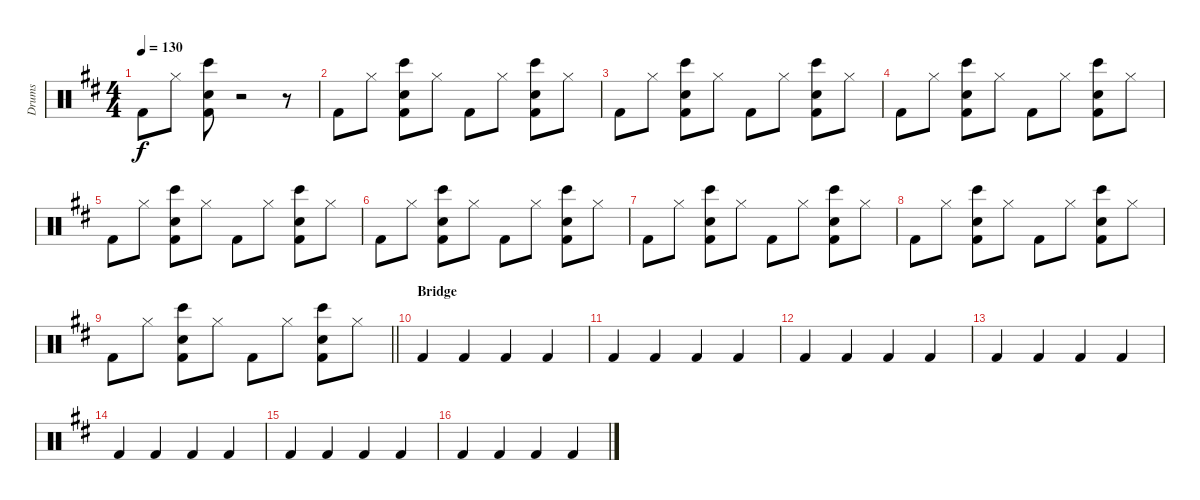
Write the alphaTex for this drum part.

\track ("Drums" "Drums") {instrument percussion}
\staff {score}
\articulation defaults
\ts (4 4)
\tempo 130
\clef neutral
\ks d "Kick (hit) 2".8{dy f} "Hi-Hat (closed)".8
("Electric Snare (hit)" "Bongo High (hit)" "Kick (hit) 2").8 r.2 r.8 |
"Kick (hit) 2".8 "Hi-Hat (closed)".8 ("Electric Snare (hit)" "Bongo High (hit)" "Kick (hit) 2").8 "Hi-Hat (closed)".8 "Kick (hit) 2".8 "Hi-Hat (closed)".8 ("Electric Snare (hit)" "Bongo High (hit)" "Kick (hit) 2").8 "Hi-Hat (closed)".8 |
"Kick (hit) 2".8 "Hi-Hat (closed)".8 ("Electric Snare (hit)" "Bongo High (hit)" "Kick (hit) 2").8 "Hi-Hat (closed)".8 "Kick (hit) 2".8 "Hi-Hat (closed)".8 ("Electric Snare (hit)" "Bongo High (hit)" "Kick (hit) 2").8 "Hi-Hat (closed)".8 |
"Kick (hit) 2".8 "Hi-Hat (closed)".8 ("Electric Snare (hit)" "Bongo High (hit)" "Kick (hit) 2").8 "Hi-Hat (closed)".8 "Kick (hit) 2".8 "Hi-Hat (closed)".8 ("Electric Snare (hit)" "Bongo High (hit)" "Kick (hit) 2").8 "Hi-Hat (closed)".8 |
"Kick (hit) 2".8 "Hi-Hat (closed)".8 ("Electric Snare (hit)" "Bongo High (hit)" "Kick (hit) 2").8 "Hi-Hat (closed)".8 "Kick (hit) 2".8 "Hi-Hat (closed)".8 ("Electric Snare (hit)" "Bongo High (hit)" "Kick (hit) 2").8 "Hi-Hat (closed)".8 |
"Kick (hit) 2".8 "Hi-Hat (closed)".8 ("Electric Snare (hit)" "Bongo High (hit)" "Kick (hit) 2").8 "Hi-Hat (closed)".8 "Kick (hit) 2".8 "Hi-Hat (closed)".8 ("Electric Snare (hit)" "Bongo High (hit)" "Kick (hit) 2").8 "Hi-Hat (closed)".8 |
"Kick (hit) 2".8 "Hi-Hat (closed)".8 ("Electric Snare (hit)" "Bongo High (hit)" "Kick (hit) 2").8 "Hi-Hat (closed)".8 "Kick (hit) 2".8 "Hi-Hat (closed)".8 ("Electric Snare (hit)" "Bongo High (hit)" "Kick (hit) 2").8 "Hi-Hat (closed)".8 |
"Kick (hit) 2".8 "Hi-Hat (closed)".8 ("Electric Snare (hit)" "Bongo High (hit)" "Kick (hit) 2").8 "Hi-Hat (closed)".8 "Kick (hit) 2".8 "Hi-Hat (closed)".8 ("Electric Snare (hit)" "Bongo High (hit)" "Kick (hit) 2").8 "Hi-Hat (closed)".8 |
\barLineRight lightlight "Kick (hit) 2".8 "Hi-Hat (closed)".8
("Electric Snare (hit)" "Bongo High (hit)" "Kick (hit) 2").8 "Hi-Hat (closed)".8 "Kick (hit) 2".8 "Hi-Hat (closed)".8 ("Electric Snare (hit)" "Bongo High (hit)" "Kick (hit) 2").8 "Hi-Hat (closed)".8 |
\section ("" "Bridge")
"Kick (hit) 2".4 "Kick (hit) 2".4 "Kick (hit) 2".4 "Kick (hit) 2".4 |
"Kick (hit) 2".4 "Kick (hit) 2".4 "Kick (hit) 2".4 "Kick (hit) 2".4 |
"Kick (hit) 2".4 "Kick (hit) 2".4 "Kick (hit) 2".4 "Kick (hit) 2".4 |
"Kick (hit) 2".4 "Kick (hit) 2".4 "Kick (hit) 2".4 "Kick (hit) 2".4 |
"Kick (hit) 2".4 "Kick (hit) 2".4 "Kick (hit) 2".4 "Kick (hit) 2".4 |
"Kick (hit) 2".4 "Kick (hit) 2".4 "Kick (hit) 2".4 "Kick (hit) 2".4 |
"Kick (hit) 2".4 "Kick (hit) 2".4 "Kick (hit) 2".4 "Kick (hit) 2".4
